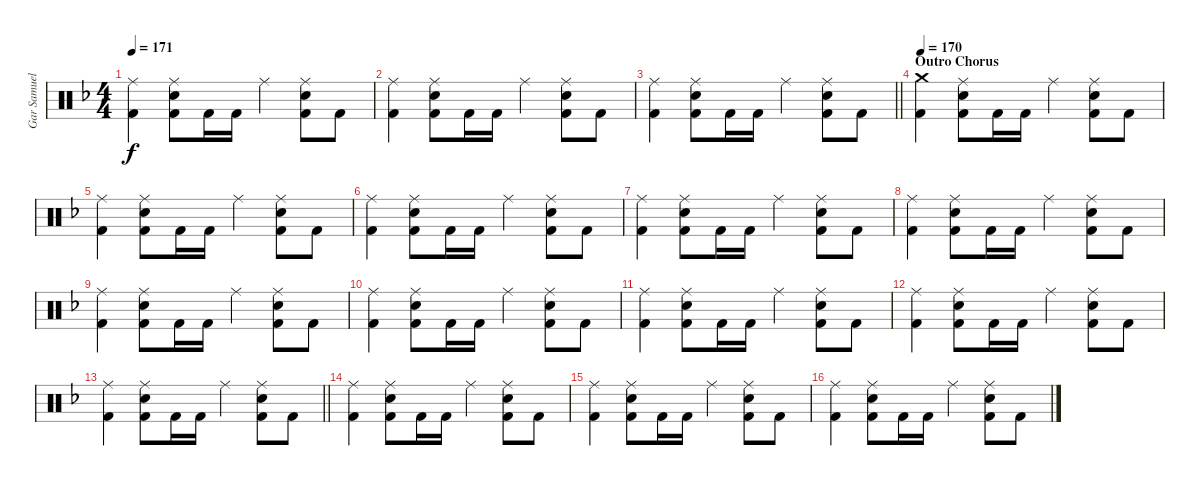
\track ("Gar Samuelson" "Gar Samuel") {instrument percussion}
\staff {score}
\articulation defaults
\ts (4 4)
\tempo 171
\clef neutral
\ks f
("Ride (middle)" "Kick (hit) 2").4{dy f} ("Ride (middle)" "Snare (hit) 2" "Kick (hit) 2").8 "Kick (hit) 2".16 "Kick (hit) 2".16 "Ride (middle)".4 ("Ride (middle)" "Snare (hit) 2" "Kick (hit) 2").8 "Kick (hit) 2".8 |
("Ride (middle)" "Kick (hit) 2").4 ("Ride (middle)" "Snare (hit) 2" "Kick (hit) 2").8 "Kick (hit) 2".16 "Kick (hit) 2".16 "Ride (middle)".4 ("Ride (middle)" "Snare (hit) 2" "Kick (hit) 2").8 "Kick (hit) 2".8 |
\barLineRight lightlight
("Ride (middle)" "Kick (hit) 2").4 ("Ride (middle)" "Snare (hit) 2" "Kick (hit) 2").8 "Kick (hit) 2".16 "Kick (hit) 2".16 "Ride (middle)".4 ("Ride (middle)" "Snare (hit) 2" "Kick (hit) 2").8 "Kick (hit) 2".8 |
\section ("" "Outro Chorus")
\tempo 170
("Crash medium (hit)" "Kick (hit) 2").4 ("Ride (middle)" "Snare (hit) 2" "Kick (hit) 2").8 "Kick (hit) 2".16 "Kick (hit) 2".16 "Ride (middle)".4 ("Ride (middle)" "Snare (hit) 2" "Kick (hit) 2").8 "Kick (hit) 2".8 |
("Ride (middle)" "Kick (hit) 2").4 ("Ride (middle)" "Snare (hit) 2" "Kick (hit) 2").8 "Kick (hit) 2".16 "Kick (hit) 2".16 "Ride (middle)".4 ("Ride (middle)" "Snare (hit) 2" "Kick (hit) 2").8 "Kick (hit) 2".8 |
("Ride (middle)" "Kick (hit) 2").4 ("Ride (middle)" "Snare (hit) 2" "Kick (hit) 2").8 "Kick (hit) 2".16 "Kick (hit) 2".16 "Ride (middle)".4 ("Ride (middle)" "Snare (hit) 2" "Kick (hit) 2").8 "Kick (hit) 2".8 |
("Ride (middle)" "Kick (hit) 2").4 ("Ride (middle)" "Snare (hit) 2" "Kick (hit) 2").8 "Kick (hit) 2".16 "Kick (hit) 2".16 "Ride (middle)".4 ("Ride (middle)" "Snare (hit) 2" "Kick (hit) 2").8 "Kick (hit) 2".8 |
("Ride (middle)" "Kick (hit) 2").4 ("Ride (middle)" "Snare (hit) 2" "Kick (hit) 2").8 "Kick (hit) 2".16 "Kick (hit) 2".16 "Ride (middle)".4 ("Ride (middle)" "Snare (hit) 2" "Kick (hit) 2").8 "Kick (hit) 2".8 |
("Ride (middle)" "Kick (hit) 2").4 ("Ride (middle)" "Snare (hit) 2" "Kick (hit) 2").8 "Kick (hit) 2".16 "Kick (hit) 2".16 "Ride (middle)".4 ("Ride (middle)" "Snare (hit) 2" "Kick (hit) 2").8 "Kick (hit) 2".8 |
("Ride (middle)" "Kick (hit) 2").4 ("Ride (middle)" "Snare (hit) 2" "Kick (hit) 2").8 "Kick (hit) 2".16 "Kick (hit) 2".16 "Ride (middle)".4 ("Ride (middle)" "Snare (hit) 2" "Kick (hit) 2").8 "Kick (hit) 2".8 |
("Ride (middle)" "Kick (hit) 2").4 ("Ride (middle)" "Snare (hit) 2" "Kick (hit) 2").8 "Kick (hit) 2".16 "Kick (hit) 2".16 "Ride (middle)".4 ("Ride (middle)" "Snare (hit) 2" "Kick (hit) 2").8 "Kick (hit) 2".8 |
("Ride (middle)" "Kick (hit) 2").4 ("Ride (middle)" "Snare (hit) 2" "Kick (hit) 2").8 "Kick (hit) 2".16 "Kick (hit) 2".16 "Ride (middle)".4 ("Ride (middle)" "Snare (hit) 2" "Kick (hit) 2").8 "Kick (hit) 2".8 |
\barLineRight lightlight
("Ride (middle)" "Kick (hit) 2").4 ("Ride (middle)" "Snare (hit) 2" "Kick (hit) 2").8 "Kick (hit) 2".16 "Kick (hit) 2".16 "Ride (middle)".4 ("Ride (middle)" "Snare (hit) 2" "Kick (hit) 2").8 "Kick (hit) 2".8 |
("Ride (middle)" "Kick (hit) 2").4 ("Ride (middle)" "Snare (hit) 2" "Kick (hit) 2").8 "Kick (hit) 2".16 "Kick (hit) 2".16 "Ride (middle)".4 ("Ride (middle)" "Snare (hit) 2" "Kick (hit) 2").8 "Kick (hit) 2".8 |
("Ride (middle)" "Kick (hit) 2").4 ("Ride (middle)" "Snare (hit) 2" "Kick (hit) 2").8 "Kick (hit) 2".16 "Kick (hit) 2".16 "Ride (middle)".4 ("Ride (middle)" "Snare (hit) 2" "Kick (hit) 2").8 "Kick (hit) 2".8 |
("Ride (middle)" "Kick (hit) 2").4 ("Ride (middle)" "Snare (hit) 2" "Kick (hit) 2").8 "Kick (hit) 2".16 "Kick (hit) 2".16 "Ride (middle)".4 ("Ride (middle)" "Snare (hit) 2" "Kick (hit) 2").8 "Kick (hit) 2".8
